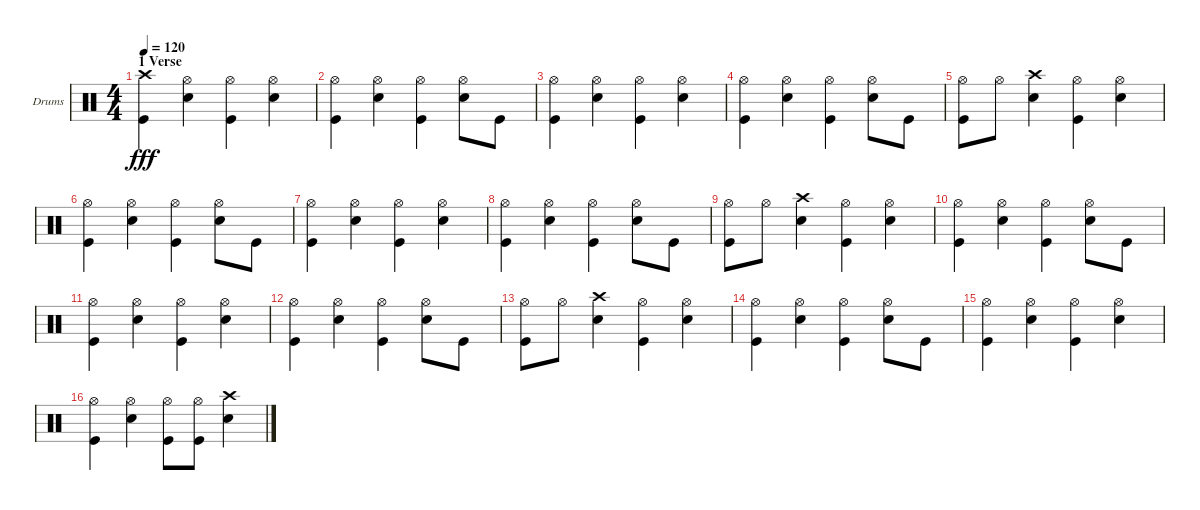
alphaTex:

\bracketExtendMode groupsimilarinstruments
\firstSystemTrackNameOrientation horizontal
\otherSystemsTrackNameOrientation horizontal
\track ("Drumkit" "Drums") {instrument percussion}
\staff {score}
\articulation defaults
\ts (4 4)
\section ("" "1 Verse")
\tempo 120
\clef neutral
\ks c
("Kick (hit)" "Crash high (hit)").4{dy fff} ("Hi-Hat (open)" "Snare (hit) 2").4 ("Kick (hit)" "Hi-Hat (open)").4 ("Hi-Hat (open)" "Snare (hit) 2").4 |
("Hi-Hat (open)" "Kick (hit)").4 ("Hi-Hat (open)" "Snare (hit) 2").4 ("Hi-Hat (open)" "Kick (hit)").4 ("Snare (hit) 2" "Hi-Hat (open)").8 "Kick (hit)".8 |
("Kick (hit)" "Hi-Hat (open)").4 ("Hi-Hat (open)" "Snare (hit) 2").4 ("Kick (hit)" "Hi-Hat (open)").4 ("Snare (hit) 2" "Hi-Hat (open)").4 |
("Kick (hit)" "Hi-Hat (open)").4 ("Hi-Hat (open)" "Snare (hit) 2").4 ("Hi-Hat (open)" "Kick (hit)").4 ("Hi-Hat (open)" "Snare (hit) 2").8 "Kick (hit)".8 |
("Kick (hit)" "Hi-Hat (open)").8 "Hi-Hat (open)".8 ("Crash high (hit)" "Snare (hit) 2").4 ("Hi-Hat (open)" "Kick (hit)").4 ("Snare (hit) 2" "Hi-Hat (open)").4 |
("Hi-Hat (open)" "Kick (hit)").4 ("Snare (hit) 2" "Hi-Hat (open)").4 ("Hi-Hat (open)" "Kick (hit)").4 ("Snare (hit) 2" "Hi-Hat (open)").8 "Kick (hit)".8 |
("Kick (hit)" "Hi-Hat (open)").4 ("Hi-Hat (open)" "Snare (hit) 2").4 ("Kick (hit)" "Hi-Hat (open)").4 ("Snare (hit) 2" "Hi-Hat (open)").4 |
("Kick (hit)" "Hi-Hat (open)").4 ("Hi-Hat (open)" "Snare (hit) 2").4 ("Hi-Hat (open)" "Kick (hit)").4 ("Hi-Hat (open)" "Snare (hit) 2").8 "Kick (hit)".8 |
("Kick (hit)" "Hi-Hat (open)").8 "Hi-Hat (open)".8 ("Crash high (hit)" "Snare (hit) 2").4 ("Hi-Hat (open)" "Kick (hit)").4 ("Snare (hit) 2" "Hi-Hat (open)").4 |
("Hi-Hat (open)" "Kick (hit)").4 ("Snare (hit) 2" "Hi-Hat (open)").4 ("Hi-Hat (open)" "Kick (hit)").4 ("Snare (hit) 2" "Hi-Hat (open)").8 "Kick (hit)".8 |
("Kick (hit)" "Hi-Hat (open)").4 ("Hi-Hat (open)" "Snare (hit) 2").4 ("Kick (hit)" "Hi-Hat (open)").4 ("Snare (hit) 2" "Hi-Hat (open)").4 |
("Kick (hit)" "Hi-Hat (open)").4 ("Hi-Hat (open)" "Snare (hit) 2").4 ("Hi-Hat (open)" "Kick (hit)").4 ("Hi-Hat (open)" "Snare (hit) 2").8 "Kick (hit)".8 |
("Kick (hit)" "Hi-Hat (open)").8 "Hi-Hat (open)".8 ("Crash high (hit)" "Snare (hit) 2").4 ("Hi-Hat (open)" "Kick (hit)").4 ("Snare (hit) 2" "Hi-Hat (open)").4 |
("Hi-Hat (open)" "Kick (hit)").4 ("Snare (hit) 2" "Hi-Hat (open)").4 ("Hi-Hat (open)" "Kick (hit)").4 ("Snare (hit) 2" "Hi-Hat (open)").8 "Kick (hit)".8 |
("Kick (hit)" "Hi-Hat (open)").4 ("Hi-Hat (open)" "Snare (hit) 2").4 ("Hi-Hat (open)" "Kick (hit)").4 ("Hi-Hat (open)" "Snare (hit) 2").4 |
("Hi-Hat (open)" "Kick (hit)").4 ("Hi-Hat (open)" "Snare (hit) 2").4 ("Kick (hit)" "Hi-Hat (open)").8 ("Kick (hit)" "Hi-Hat (open)").8 ("Crash high (hit)" "Snare (hit) 2").4
